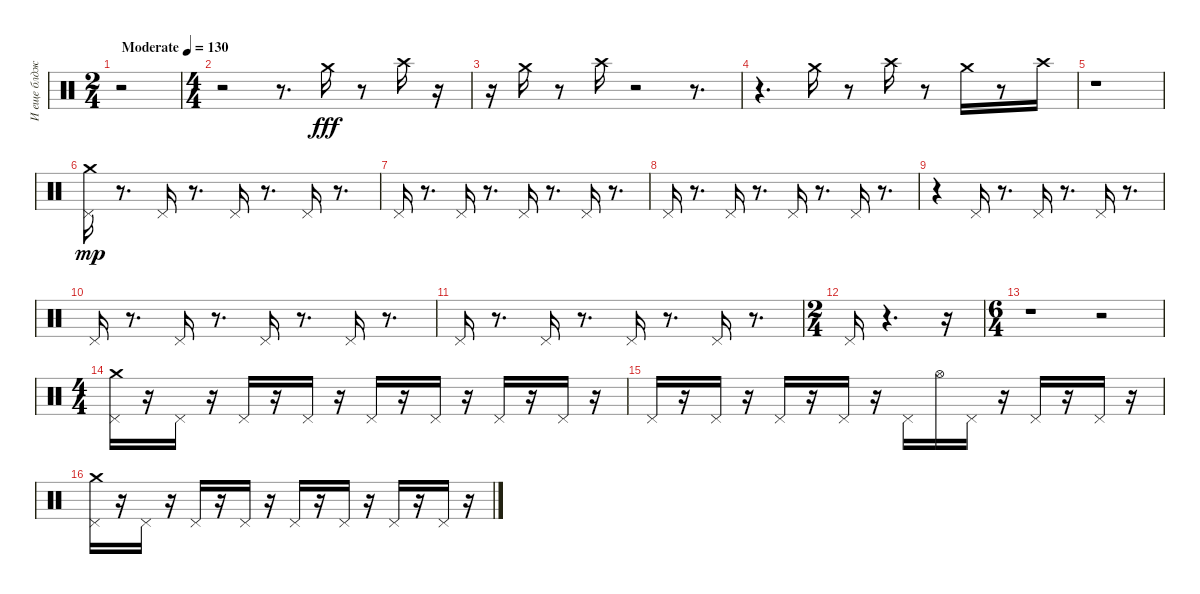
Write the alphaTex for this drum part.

\track ("И еще блджад" "И еще блдж") {instrument percussion}
\staff {score}
\articulation defaults
\ts (2 4)
\tempo (130 "Moderate")
\clef neutral
\ks c
r.2{dy fff} |
\ts (4 4)
r.2 r.8{d} "Crash medium (hit)".16 r.8 "Crash high (hit)".16 r.16 |
r.16 "Crash medium (hit)".16 r.8 "Crash high (hit)".16 r.2 r.8{d} |
r.4{d} "Crash medium (hit)".16 r.8 "Crash high (hit)".16 r.8 "Crash medium (hit)".16 r.8 "Crash high (hit)".16 |
r.1 |
("Crash medium (hit)" "Pedal Hi-Hat (hit)").16{dy mp} r.8{d} "Pedal Hi-Hat (hit)".16 r.8{d} "Pedal Hi-Hat (hit)".16 r.8{d} "Pedal Hi-Hat (hit)".16 r.8{d} |
"Pedal Hi-Hat (hit)".16 r.8{d} "Pedal Hi-Hat (hit)".16 r.8{d} "Pedal Hi-Hat (hit)".16 r.8{d} "Pedal Hi-Hat (hit)".16 r.8{d} |
"Pedal Hi-Hat (hit)".16 r.8{d} "Pedal Hi-Hat (hit)".16 r.8{d} "Pedal Hi-Hat (hit)".16 r.8{d} "Pedal Hi-Hat (hit)".16 r.8{d} |
r.4 "Pedal Hi-Hat (hit)".16 r.8{d} "Pedal Hi-Hat (hit)".16 r.8{d} "Pedal Hi-Hat (hit)".16 r.8{d} |
"Pedal Hi-Hat (hit)".16 r.8{d} "Pedal Hi-Hat (hit)".16 r.8{d} "Pedal Hi-Hat (hit)".16 r.8{d} "Pedal Hi-Hat (hit)".16 r.8{d} |
"Pedal Hi-Hat (hit)".16 r.8{d} "Pedal Hi-Hat (hit)".16 r.8{d} "Pedal Hi-Hat (hit)".16 r.8{d} "Pedal Hi-Hat (hit)".16 r.8{d} |
\ts (2 4)
"Pedal Hi-Hat (hit)".16 r.4{d} r.16 |
\ts (6 4)
r.1 r.2 |
\ts (4 4)
("Crash medium (hit)" "Pedal Hi-Hat (hit)").16 r.16 "Pedal Hi-Hat (hit)".16 r.16 "Pedal Hi-Hat (hit)".16 r.16 "Pedal Hi-Hat (hit)".16 r.16 "Pedal Hi-Hat (hit)".16 r.16 "Pedal Hi-Hat (hit)".16 r.16 "Pedal Hi-Hat (hit)".16 r.16 "Pedal Hi-Hat (hit)".16 r.16 |
"Pedal Hi-Hat (hit)".16 r.16 "Pedal Hi-Hat (hit)".16 r.16 "Pedal Hi-Hat (hit)".16 r.16 "Pedal Hi-Hat (hit)".16 r.16 "Pedal Hi-Hat (hit)".16 "Hi-Hat (open)".16 "Pedal Hi-Hat (hit)".16 r.16 "Pedal Hi-Hat (hit)".16 r.16 "Pedal Hi-Hat (hit)".16 r.16 |
("Crash medium (hit)" "Pedal Hi-Hat (hit)").16 r.16 "Pedal Hi-Hat (hit)".16 r.16 "Pedal Hi-Hat (hit)".16 r.16 "Pedal Hi-Hat (hit)".16 r.16 "Pedal Hi-Hat (hit)".16 r.16 "Pedal Hi-Hat (hit)".16 r.16 "Pedal Hi-Hat (hit)".16 r.16 "Pedal Hi-Hat (hit)".16 r.16
